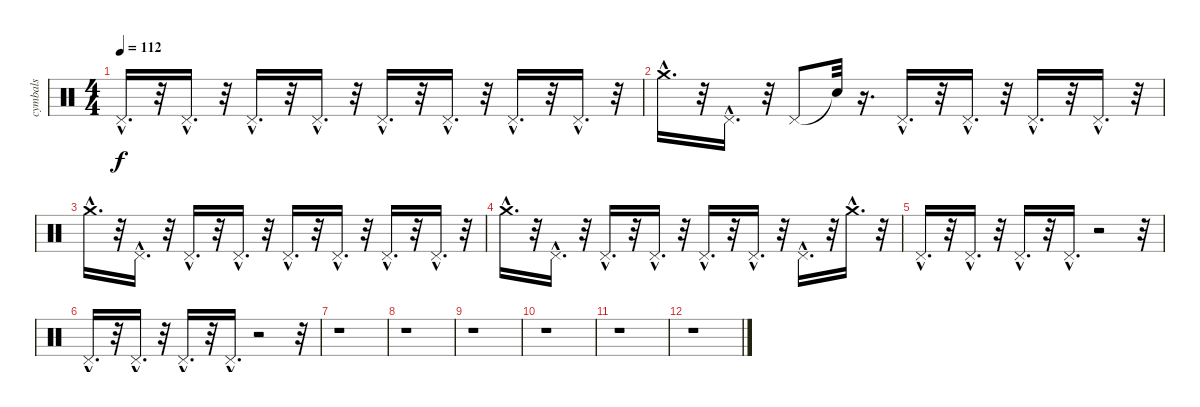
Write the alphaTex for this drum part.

\track ("cymbals" "cymbals") {instrument percussion}
\staff {score}
\articulation defaults
\ts (4 4)
\tempo 112
\clef neutral
\ks c "Pedal Hi-Hat (hit)"{hac}.16{d dy f}
r.32 "Pedal Hi-Hat (hit)"{hac}.16{d} r.32 "Pedal Hi-Hat (hit)"{hac}.16{d} r.32 "Pedal Hi-Hat (hit)"{hac}.16{d} r.32 "Pedal Hi-Hat (hit)"{hac}.16{d} r.32 "Pedal Hi-Hat (hit)"{hac}.16{d} r.32 "Pedal Hi-Hat (hit)"{hac}.16{d} r.32 "Pedal Hi-Hat (hit)"{hac}.16{d} r.32 |
"Crash medium (hit)"{hac}.16{d} r.32 "Pedal Hi-Hat (hit)"{hac}.16{d} r.32 "Pedal Hi-Hat (hit)".8 "Snare (hit)"{t}.32 r.16{d} "Pedal Hi-Hat (hit)"{hac}.16{d} r.32 "Pedal Hi-Hat (hit)"{hac}.16{d} r.32 "Pedal Hi-Hat (hit)"{hac}.16{d} r.32 "Pedal Hi-Hat (hit)"{hac}.16{d} r.32 |
"Crash medium (hit)"{hac}.16{d} r.32 "Pedal Hi-Hat (hit)"{hac}.16{d} r.32 "Pedal Hi-Hat (hit)"{hac}.16{d} r.32 "Pedal Hi-Hat (hit)"{hac}.16{d} r.32 "Pedal Hi-Hat (hit)"{hac}.16{d} r.32 "Pedal Hi-Hat (hit)"{hac}.16{d} r.32 "Pedal Hi-Hat (hit)"{hac}.16{d} r.32 "Pedal Hi-Hat (hit)"{hac}.16{d} r.32 |
"Crash medium (hit)"{hac}.16{d} r.32 "Pedal Hi-Hat (hit)"{hac}.16{d} r.32 "Pedal Hi-Hat (hit)"{hac}.16{d} r.32 "Pedal Hi-Hat (hit)"{hac}.16{d} r.32 "Pedal Hi-Hat (hit)"{hac}.16{d} r.32 "Pedal Hi-Hat (hit)"{hac}.16{d} r.32 "Pedal Hi-Hat (hit)"{hac}.16{d} r.32 "Crash medium (hit)"{hac}.16{d} r.32 |
"Pedal Hi-Hat (hit)"{hac}.16{d} r.32 "Pedal Hi-Hat (hit)"{hac}.16{d} r.32 "Pedal Hi-Hat (hit)"{hac}.16{d} r.32 "Pedal Hi-Hat (hit)"{hac}.16{d} r.2 r.32 |
"Pedal Hi-Hat (hit)"{hac}.16{d} r.32 "Pedal Hi-Hat (hit)"{hac}.16{d} r.32 "Pedal Hi-Hat (hit)"{hac}.16{d} r.32 "Pedal Hi-Hat (hit)"{hac}.16{d} r.2 r.32 |
r.1 |
r.1 |
r.1 |
r.1 |
r.1 |
r.1
